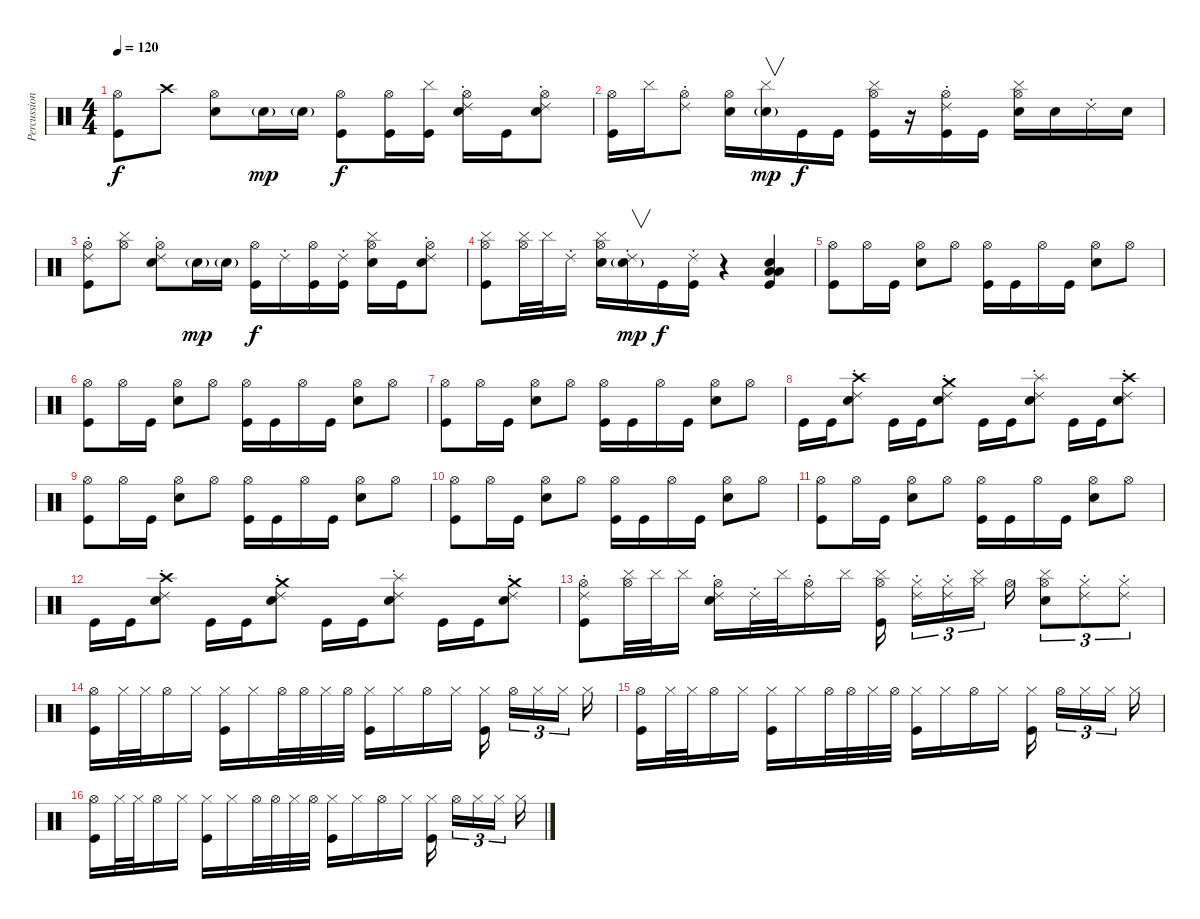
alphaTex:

\track ("Percussion" "Percussion") {instrument percussion}
\staff {score}
\articulation defaults
\ts (4 4)
\tempo 120
\clef neutral
\ks c
("Hi-Hat (open)" "Kick (hit)").8{dy f} "Crash high (hit)".8 ("Hi-Hat (open)" "Snare (hit) 2").8 "Snare (hit) 2"{g}.16{dy mp} "Snare (hit) 2"{g}.16 ("Hi-Hat (open)" "Kick (hit)").8{dy f} ("Hi-Hat (open)" "Kick (hit)").16 ("Cymbal (hit)" "Kick (hit)").16 ("Hi-Hat (open)" "Snare (hit) 2" "Ride (choke) 2").16 "Kick (hit)".16 ("Hi-Hat (open)" "Snare (hit) 2" "Ride (choke) 2").8 |
("Hi-Hat (open)" "Kick (hit)").16 "Cymbal (hit)".16 ("Hi-Hat (open)" "Ride (choke) 2").8 ("Hi-Hat (open)" "Snare (hit) 2").16 ("Snare (hit) 2"{g} "Cymbal (hit)").16{v dy mp} "Kick (hit)".16{dy f} "Kick (hit)".16 ("Hi-Hat (open)" "Cymbal (hit)" "Kick (hit)").16 r.16 ("Hi-Hat (open)" "Ride (choke) 2" "Kick (hit)").16 "Kick (hit)".16 ("Hi-Hat (open)" "Snare (hit) 2" "Cymbal (hit)").16 "Snare (hit) 2".16 "Ride (choke) 2".16 "Snare (hit) 2".16 |
("Hi-Hat (open)" "Ride (choke) 2" "Kick (hit)").8 ("Hi-Hat (open)" "Cymbal (hit)").8 ("Hi-Hat (open)" "Snare (hit) 2" "Ride (choke) 2").8 "Snare (hit) 2"{g}.16{dy mp} "Snare (hit) 2"{g}.16 ("Hi-Hat (open)" "Kick (hit)").16{dy f} "Ride (choke) 2".16 ("Hi-Hat (open)" "Kick (hit)").16 ("Ride (choke) 2" "Kick (hit)").16 ("Hi-Hat (open)" "Snare (hit) 2" "Cymbal (hit)").16 "Kick (hit)".16 ("Hi-Hat (open)" "Snare (hit) 2" "Ride (choke) 2").8 |
("Hi-Hat (open)" "Cymbal (hit)" "Kick (hit)").8 ("Hi-Hat (open)" "Cymbal (hit)").32 "Cymbal (hit)".32 "Ride (choke) 2".16 ("Hi-Hat (open)" "Snare (hit) 2" "Cymbal (hit)").16 ("Snare (hit) 2"{g} "Ride (choke) 2").16{v dy mp} "Kick (hit)".16{dy f} ("Ride (choke) 2" "Kick (hit)").16 r.4 ("Snare (hit) 2" "Low Floor Tom (hit)" "Low Floor Tom (hit)" "Kick (hit)").4 |
("Hi-Hat (open)" "Kick (hit)").8 "Hi-Hat (open)".16 "Kick (hit)".16 ("Hi-Hat (open)" "Snare (hit) 2").8 "Hi-Hat (open)".8 ("Hi-Hat (open)" "Kick (hit)").16 "Kick (hit)".16 "Hi-Hat (open)".16 "Kick (hit)".16 ("Hi-Hat (open)" "Snare (hit) 2").8 "Hi-Hat (open)".8 |
("Hi-Hat (open)" "Kick (hit)").8 "Hi-Hat (open)".16 "Kick (hit)".16 ("Hi-Hat (open)" "Snare (hit) 2").8 "Hi-Hat (open)".8 ("Hi-Hat (open)" "Kick (hit)").16 "Kick (hit)".16 "Hi-Hat (open)".16 "Kick (hit)".16 ("Hi-Hat (open)" "Snare (hit) 2").8 "Hi-Hat (open)".8 |
("Hi-Hat (open)" "Kick (hit)").8 "Hi-Hat (open)".16 "Kick (hit)".16 ("Hi-Hat (open)" "Snare (hit) 2").8 "Hi-Hat (open)".8 ("Hi-Hat (open)" "Kick (hit)").16 "Kick (hit)".16 "Hi-Hat (open)".16 "Kick (hit)".16 ("Hi-Hat (open)" "Snare (hit) 2").8 "Hi-Hat (open)".8 |
"Kick (hit)".16 "Kick (hit)".16 ("Crash high (hit)" "Snare (hit) 2" "Ride (choke) 2").8 "Kick (hit)".16 "Kick (hit)".16 ("Crash medium (hit)" "Snare (hit) 2" "Ride (choke) 2").8 "Kick (hit)".16 "Kick (hit)".16 ("Splash (hit)" "Snare (hit) 2" "Ride (choke) 2").8 "Kick (hit)".16 "Kick (hit)".16 ("Crash high (hit)" "Snare (hit) 2" "Ride (choke) 2").8 |
("Hi-Hat (open)" "Kick (hit)").8 "Hi-Hat (open)".16 "Kick (hit)".16 ("Hi-Hat (open)" "Snare (hit) 2").8 "Hi-Hat (open)".8 ("Hi-Hat (open)" "Kick (hit)").16 "Kick (hit)".16 "Hi-Hat (open)".16 "Kick (hit)".16 ("Hi-Hat (open)" "Snare (hit) 2").8 "Hi-Hat (open)".8 |
("Hi-Hat (open)" "Kick (hit)").8 "Hi-Hat (open)".16 "Kick (hit)".16 ("Hi-Hat (open)" "Snare (hit) 2").8 "Hi-Hat (open)".8 ("Hi-Hat (open)" "Kick (hit)").16 "Kick (hit)".16 "Hi-Hat (open)".16 "Kick (hit)".16 ("Hi-Hat (open)" "Snare (hit) 2").8 "Hi-Hat (open)".8 |
("Hi-Hat (open)" "Kick (hit)").8 "Hi-Hat (open)".16 "Kick (hit)".16 ("Hi-Hat (open)" "Snare (hit) 2").8 "Hi-Hat (open)".8 ("Hi-Hat (open)" "Kick (hit)").16 "Kick (hit)".16 "Hi-Hat (open)".16 "Kick (hit)".16 ("Hi-Hat (open)" "Snare (hit) 2").8 "Hi-Hat (open)".8 |
"Kick (hit)".16 "Kick (hit)".16 ("Crash high (hit)" "Snare (hit) 2" "Ride (choke) 2").8 "Kick (hit)".16 "Kick (hit)".16 ("Crash medium (hit)" "Snare (hit) 2" "Ride (choke) 2").8 "Kick (hit)".16 "Kick (hit)".16 ("Splash (hit)" "Snare (hit) 2" "Ride (choke) 2").8 "Kick (hit)".16 "Kick (hit)".16 ("Crash medium (hit)" "Snare (hit) 2" "Ride (choke) 2").8 |
("Hi-Hat (open)" "Ride (choke) 2" "Kick (hit)").8 ("Hi-Hat (open)" "Cymbal (hit)").32 "Cymbal (hit)".32 "Cymbal (hit)".16 ("Hi-Hat (open)" "Ride (choke) 2" "Snare (hit) 2").16 "Ride (choke) 2".32 "Cymbal (hit)".32 ("Hi-Hat (open)" "Ride (choke) 2").16 "Cymbal (hit)".16 ("Hi-Hat (open)" "Cymbal (hit)" "Kick (hit)").16 ("Hi-Hat (closed)" "Ride (choke) 2").16{tu (3 2)} ("Hi-Hat (closed)" "Ride (choke) 2").16{tu (3 2)} ("Hi-Hat (closed)" "Cymbal (hit)").16{tu (3 2)} "Hi-Hat (open)".16 ("Hi-Hat (open)" "Cymbal (hit)" "Snare (hit) 2").8{tu (3 2)} ("Hi-Hat (closed)" "Ride (choke) 2").8{tu (3 2)} ("Hi-Hat (closed)" "Ride (choke) 2").8{tu (3 2)} |
("Hi-Hat (open)" "Kick (hit)").16 "Hi-Hat (closed)".32 "Hi-Hat (closed)".32 "Hi-Hat (open)".16 "Hi-Hat (closed)".16 ("Hi-Hat (closed)" "Kick (hit)").16 "Hi-Hat (closed)".16 "Hi-Hat (open)".32 "Hi-Hat (open)".32 "Hi-Hat (closed)".32 "Hi-Hat (open)".32 ("Hi-Hat (closed)" "Kick (hit)").16 "Hi-Hat (closed)".16 "Hi-Hat (open)".16 "Hi-Hat (closed)".16 ("Hi-Hat (closed)" "Kick (hit)").16 "Hi-Hat (open)".16{tu (3 2)} "Hi-Hat (closed)".16{tu (3 2)} "Hi-Hat (closed)".16{tu (3 2)} "Hi-Hat (closed)".16 |
("Hi-Hat (open)" "Kick (hit)").16 "Hi-Hat (closed)".32 "Hi-Hat (closed)".32 "Hi-Hat (open)".16 "Hi-Hat (closed)".16 ("Hi-Hat (closed)" "Kick (hit)").16 "Hi-Hat (closed)".16 "Hi-Hat (open)".32 "Hi-Hat (open)".32 "Hi-Hat (closed)".32 "Hi-Hat (open)".32 ("Hi-Hat (closed)" "Kick (hit)").16 "Hi-Hat (closed)".16 "Hi-Hat (open)".16 "Hi-Hat (closed)".16 ("Hi-Hat (closed)" "Kick (hit)").16 "Hi-Hat (open)".16{tu (3 2)} "Hi-Hat (closed)".16{tu (3 2)} "Hi-Hat (closed)".16{tu (3 2)} "Hi-Hat (closed)".16 |
("Hi-Hat (open)" "Kick (hit)").16 "Hi-Hat (closed)".32 "Hi-Hat (closed)".32 "Hi-Hat (open)".16 "Hi-Hat (closed)".16 ("Hi-Hat (closed)" "Kick (hit)").16 "Hi-Hat (closed)".16 "Hi-Hat (open)".32 "Hi-Hat (open)".32 "Hi-Hat (closed)".32 "Hi-Hat (open)".32 ("Hi-Hat (closed)" "Kick (hit)").16 "Hi-Hat (closed)".16 "Hi-Hat (open)".16 "Hi-Hat (closed)".16 ("Hi-Hat (closed)" "Kick (hit)").16 "Hi-Hat (open)".16{tu (3 2)} "Hi-Hat (closed)".16{tu (3 2)} "Hi-Hat (closed)".16{tu (3 2)} "Hi-Hat (closed)".16
